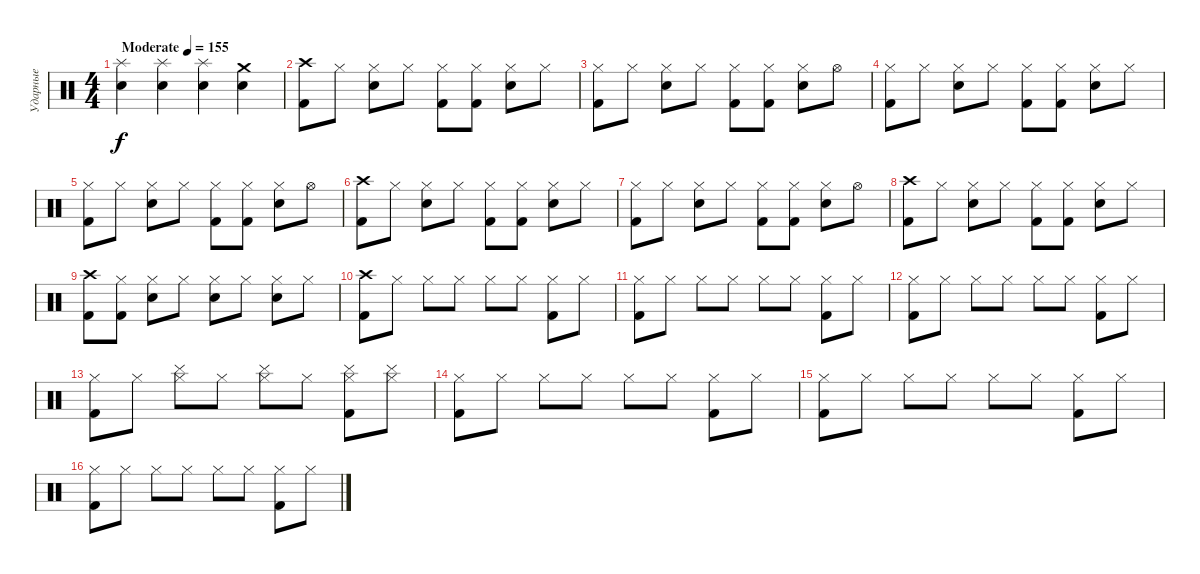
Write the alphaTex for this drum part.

\track ("Ударные" "Ударные") {instrument percussion}
\staff {score}
\articulation defaults
\ts (4 4)
\tempo (155 "Moderate")
\clef neutral
\ks c
("Splash (hit)" "Electric Snare (hit)").4{dy f} ("Splash (hit)" "Electric Snare (hit)").4 ("Splash (hit)" "Electric Snare (hit)").4 ("Crash medium (hit)" "Electric Snare (hit)").4 |
("Crash high (hit)" "Kick (hit) 2").8 "Hi-Hat (closed)".8 ("Hi-Hat (closed)" "Electric Snare (hit)").8 "Hi-Hat (closed)".8 ("Hi-Hat (closed)" "Kick (hit) 2").8 ("Hi-Hat (closed)" "Kick (hit) 2").8 ("Hi-Hat (closed)" "Electric Snare (hit)").8 "Hi-Hat (closed)".8 |
("Hi-Hat (closed)" "Kick (hit) 2").8 "Hi-Hat (closed)".8 ("Hi-Hat (closed)" "Electric Snare (hit)").8 "Hi-Hat (closed)".8 ("Hi-Hat (closed)" "Kick (hit) 2").8 ("Hi-Hat (closed)" "Kick (hit) 2").8 ("Hi-Hat (closed)" "Electric Snare (hit)").8 "Hi-Hat (open)".8 |
("Hi-Hat (closed)" "Kick (hit) 2").8 "Hi-Hat (closed)".8 ("Hi-Hat (closed)" "Electric Snare (hit)").8 "Hi-Hat (closed)".8 ("Hi-Hat (closed)" "Kick (hit) 2").8 ("Hi-Hat (closed)" "Kick (hit) 2").8 ("Hi-Hat (closed)" "Electric Snare (hit)").8 "Hi-Hat (closed)".8 |
("Hi-Hat (closed)" "Kick (hit) 2").8 "Hi-Hat (closed)".8 ("Hi-Hat (closed)" "Electric Snare (hit)").8 "Hi-Hat (closed)".8 ("Hi-Hat (closed)" "Kick (hit) 2").8 ("Hi-Hat (closed)" "Kick (hit) 2").8 ("Hi-Hat (closed)" "Electric Snare (hit)").8 "Hi-Hat (open)".8 |
("Crash high (hit)" "Kick (hit) 2").8 "Hi-Hat (closed)".8 ("Hi-Hat (closed)" "Electric Snare (hit)").8 "Hi-Hat (closed)".8 ("Hi-Hat (closed)" "Kick (hit) 2").8 ("Hi-Hat (closed)" "Kick (hit) 2").8 ("Hi-Hat (closed)" "Electric Snare (hit)").8 "Hi-Hat (closed)".8 |
("Hi-Hat (closed)" "Kick (hit) 2").8 "Hi-Hat (closed)".8 ("Hi-Hat (closed)" "Electric Snare (hit)").8 "Hi-Hat (closed)".8 ("Hi-Hat (closed)" "Kick (hit) 2").8 ("Hi-Hat (closed)" "Kick (hit) 2").8 ("Hi-Hat (closed)" "Electric Snare (hit)").8 "Hi-Hat (open)".8 |
("Crash high (hit)" "Kick (hit) 2").8 "Hi-Hat (closed)".8 ("Hi-Hat (closed)" "Electric Snare (hit)").8 "Hi-Hat (closed)".8 ("Hi-Hat (closed)" "Kick (hit) 2").8 ("Hi-Hat (closed)" "Kick (hit) 2").8 ("Hi-Hat (closed)" "Electric Snare (hit)").8 "Hi-Hat (closed)".8 |
("Crash high (hit)" "Kick (hit) 2").8 ("Hi-Hat (closed)" "Kick (hit) 2").8 ("Hi-Hat (closed)" "Electric Snare (hit)").8 "Hi-Hat (closed)".8 ("Hi-Hat (closed)" "Electric Snare (hit)").8 "Hi-Hat (closed)".8 ("Hi-Hat (closed)" "Electric Snare (hit)").8 "Hi-Hat (closed)".8 |
("Crash high (hit)" "Kick (hit) 2").8 "Hi-Hat (closed)".8 "Hi-Hat (closed)".8 "Hi-Hat (closed)".8 "Hi-Hat (closed)".8 "Hi-Hat (closed)".8 ("Hi-Hat (closed)" "Kick (hit) 2").8 "Hi-Hat (closed)".8 |
("Hi-Hat (closed)" "Kick (hit) 2").8 "Hi-Hat (closed)".8 "Hi-Hat (closed)".8 "Hi-Hat (closed)".8 "Hi-Hat (closed)".8 "Hi-Hat (closed)".8 ("Hi-Hat (closed)" "Kick (hit) 2").8 "Hi-Hat (closed)".8 |
("Hi-Hat (closed)" "Kick (hit) 2").8 "Hi-Hat (closed)".8 "Hi-Hat (closed)".8 "Hi-Hat (closed)".8 "Hi-Hat (closed)".8 "Hi-Hat (closed)".8 ("Hi-Hat (closed)" "Kick (hit) 2").8 "Hi-Hat (closed)".8 |
("Hi-Hat (closed)" "Kick (hit) 2").8 "Hi-Hat (closed)".8 ("Hi-Hat (closed)" "Cymbal (hit)").8 "Hi-Hat (closed)".8 ("Hi-Hat (closed)" "Cymbal (hit)").8 "Hi-Hat (closed)".8 ("Hi-Hat (closed)" "Cymbal (hit)" "Kick (hit) 2").8 ("Hi-Hat (closed)" "Cymbal (hit)").8 |
("Hi-Hat (closed)" "Kick (hit) 2").8 "Hi-Hat (closed)".8 "Hi-Hat (closed)".8 "Hi-Hat (closed)".8 "Hi-Hat (closed)".8 "Hi-Hat (closed)".8 ("Hi-Hat (closed)" "Kick (hit) 2").8 "Hi-Hat (closed)".8 |
("Hi-Hat (closed)" "Kick (hit) 2").8 "Hi-Hat (closed)".8 "Hi-Hat (closed)".8 "Hi-Hat (closed)".8 "Hi-Hat (closed)".8 "Hi-Hat (closed)".8 ("Hi-Hat (closed)" "Kick (hit) 2").8 "Hi-Hat (closed)".8 |
("Hi-Hat (closed)" "Kick (hit) 2").8 "Hi-Hat (closed)".8 "Hi-Hat (closed)".8 "Hi-Hat (closed)".8 "Hi-Hat (closed)".8 "Hi-Hat (closed)".8 ("Hi-Hat (closed)" "Kick (hit) 2").8 "Hi-Hat (closed)".8
